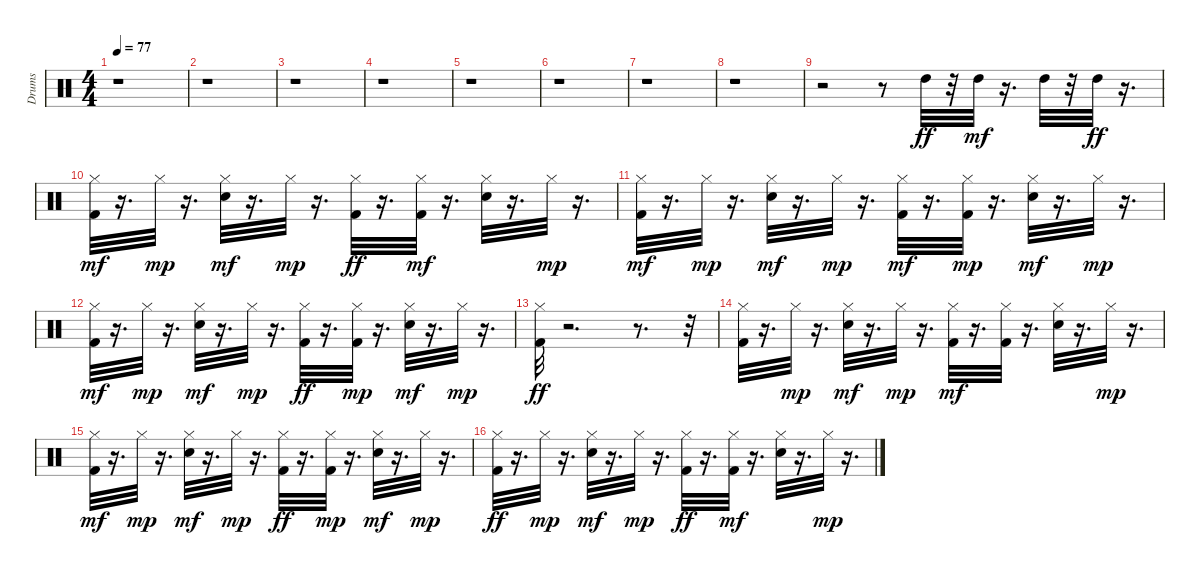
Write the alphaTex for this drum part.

\track ("Drums" "Drums") {instrument percussion}
\staff {score}
\articulation defaults
\ts (4 4)
\tempo 77
\clef neutral
\ks c
r.1{dy f} |
r.1 |
r.1 |
r.1 |
r.1 |
r.1 |
r.1 |
r.1 |
r.2 r.8 "High Tom (hit)".32{dy ff} r.32 "High Tom (hit)".32{dy mf} r.16{d} "High Tom (hit)".32 r.32 "High Tom (hit)".32{dy ff} r.16{d} |
("Kick (hit) 2" "Hi-Hat (closed)").32{dy mf} r.16{d} "Hi-Hat (closed)".32{dy mp} r.16{d} ("Hi-Hat (closed)" "Electric Snare (hit)").32{dy mf} r.16{d} "Hi-Hat (closed)".32{dy mp} r.16{d} ("Hi-Hat (closed)" "Kick (hit) 2").32{dy ff} r.16{d} ("Hi-Hat (closed)" "Kick (hit) 2").32{dy mf} r.16{d} ("Hi-Hat (closed)" "Electric Snare (hit)").32 r.16{d} "Hi-Hat (closed)".32{dy mp} r.16{d} |
("Kick (hit) 2" "Hi-Hat (closed)").32{dy mf} r.16{d} "Hi-Hat (closed)".32{dy mp} r.16{d} ("Hi-Hat (closed)" "Electric Snare (hit)").32{dy mf} r.16{d} "Hi-Hat (closed)".32{dy mp} r.16{d} ("Kick (hit) 2" "Hi-Hat (closed)").32{dy mf} r.16{d} ("Kick (hit) 2" "Hi-Hat (closed)").32{dy mp} r.16{d} ("Electric Snare (hit)" "Hi-Hat (closed)").32{dy mf} r.16{d} "Hi-Hat (closed)".32{dy mp} r.16{d} |
("Kick (hit) 2" "Hi-Hat (closed)").32{dy mf} r.16{d} "Hi-Hat (closed)".32{dy mp} r.16{d} ("Hi-Hat (closed)" "Electric Snare (hit)").32{dy mf} r.16{d} "Hi-Hat (closed)".32{dy mp} r.16{d} ("Hi-Hat (closed)" "Kick (hit) 2").32{dy ff} r.16{d} ("Kick (hit) 2" "Hi-Hat (closed)").32{dy mp} r.16{d} ("Electric Snare (hit)" "Hi-Hat (closed)").32{dy mf} r.16{d} "Hi-Hat (closed)".32{dy mp} r.16{d} |
("Hi-Hat (closed)" "Kick (hit) 2").32{dy ff} r.2{d} r.8{d} r.32 |
("Hi-Hat (closed)" "Kick (hit) 2").32 r.16{d} "Hi-Hat (closed)".32{dy mp} r.16{d} ("Electric Snare (hit)" "Hi-Hat (closed)").32{dy mf} r.16{d} "Hi-Hat (closed)".32{dy mp} r.16{d} ("Kick (hit) 2" "Hi-Hat (closed)").32{dy mf} r.16{d} ("Hi-Hat (closed)" "Kick (hit) 2").32 r.16{d} ("Hi-Hat (closed)" "Electric Snare (hit)").32 r.16{d} "Hi-Hat (closed)".32{dy mp} r.16{d} |
("Kick (hit) 2" "Hi-Hat (closed)").32{dy mf} r.16{d} "Hi-Hat (closed)".32{dy mp} r.16{d} ("Hi-Hat (closed)" "Electric Snare (hit)").32{dy mf} r.16{d} "Hi-Hat (closed)".32{dy mp} r.16{d} ("Hi-Hat (closed)" "Kick (hit) 2").32{dy ff} r.16{d} ("Kick (hit) 2" "Hi-Hat (closed)").32{dy mp} r.16{d} ("Hi-Hat (closed)" "Electric Snare (hit)").32{dy mf} r.16{d} "Hi-Hat (closed)".32{dy mp} r.16{d} |
("Hi-Hat (closed)" "Kick (hit) 2").32{dy ff} r.16{d} "Hi-Hat (closed)".32{dy mp} r.16{d} ("Electric Snare (hit)" "Hi-Hat (closed)").32{dy mf} r.16{d} "Hi-Hat (closed)".32{dy mp} r.16{d} ("Hi-Hat (closed)" "Kick (hit) 2").32{dy ff} r.16{d} ("Hi-Hat (closed)" "Kick (hit) 2").32{dy mf} r.16{d} ("Hi-Hat (closed)" "Electric Snare (hit)").32 r.16{d} "Hi-Hat (closed)".32{dy mp} r.16{d}
